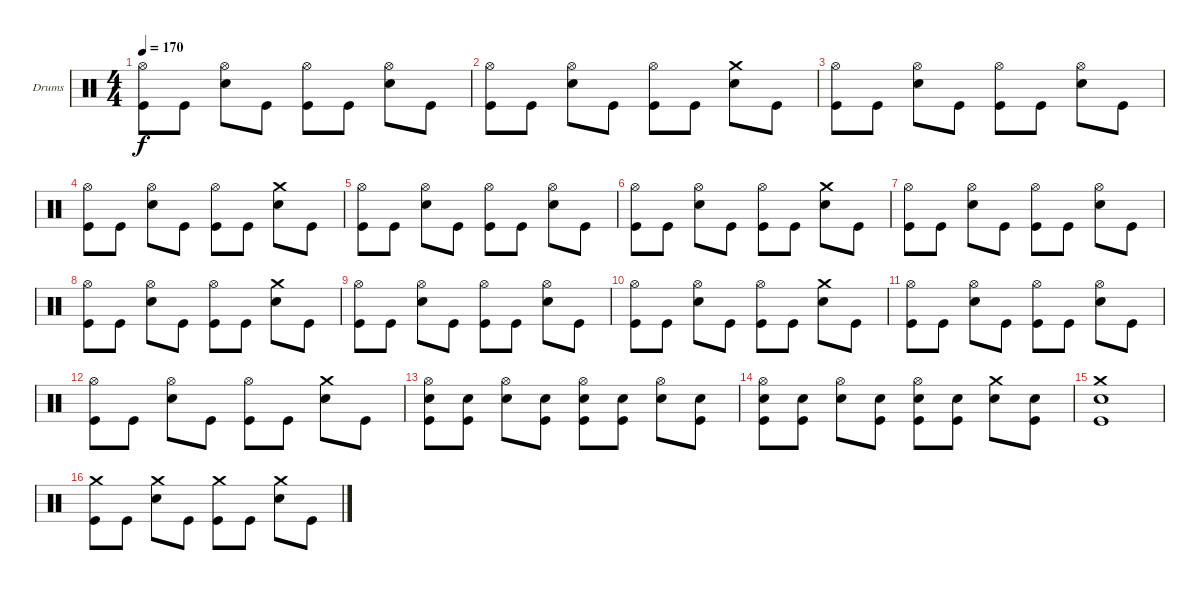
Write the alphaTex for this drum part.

\bracketExtendMode groupsimilarinstruments
\firstSystemTrackNameOrientation horizontal
\otherSystemsTrackNameOrientation horizontal
\track ("Drumkit" "Drums") {instrument percussion}
\staff {score}
\articulation defaults
\ts (4 4)
\tempo 170
\clef neutral
\ks c
("Hi-Hat (open)" "Kick (hit)").8{dy f} "Kick (hit)".8 ("Hi-Hat (open)" "Snare (hit) 2").8 "Kick (hit)".8 ("Hi-Hat (open)" "Kick (hit)").8 "Kick (hit)".8 ("Hi-Hat (open)" "Snare (hit) 2").8 "Kick (hit)".8 |
("Hi-Hat (open)" "Kick (hit)").8 "Kick (hit)".8 ("Hi-Hat (open)" "Snare (hit) 2").8 "Kick (hit)".8 ("Hi-Hat (open)" "Kick (hit)").8 "Kick (hit)".8 ("Crash medium (hit)" "Snare (hit) 2").8 "Kick (hit)".8 |
("Hi-Hat (open)" "Kick (hit)").8 "Kick (hit)".8 ("Hi-Hat (open)" "Snare (hit) 2").8 "Kick (hit)".8 ("Hi-Hat (open)" "Kick (hit)").8 "Kick (hit)".8 ("Hi-Hat (open)" "Snare (hit) 2").8 "Kick (hit)".8 |
("Hi-Hat (open)" "Kick (hit)").8 "Kick (hit)".8 ("Hi-Hat (open)" "Snare (hit) 2").8 "Kick (hit)".8 ("Hi-Hat (open)" "Kick (hit)").8 "Kick (hit)".8 ("Crash medium (hit)" "Snare (hit) 2").8 "Kick (hit)".8 |
("Hi-Hat (open)" "Kick (hit)").8 "Kick (hit)".8 ("Hi-Hat (open)" "Snare (hit) 2").8 "Kick (hit)".8 ("Hi-Hat (open)" "Kick (hit)").8 "Kick (hit)".8 ("Hi-Hat (open)" "Snare (hit) 2").8 "Kick (hit)".8 |
("Hi-Hat (open)" "Kick (hit)").8 "Kick (hit)".8 ("Hi-Hat (open)" "Snare (hit) 2").8 "Kick (hit)".8 ("Hi-Hat (open)" "Kick (hit)").8 "Kick (hit)".8 ("Crash medium (hit)" "Snare (hit) 2").8 "Kick (hit)".8 |
("Hi-Hat (open)" "Kick (hit)").8 "Kick (hit)".8 ("Hi-Hat (open)" "Snare (hit) 2").8 "Kick (hit)".8 ("Hi-Hat (open)" "Kick (hit)").8 "Kick (hit)".8 ("Hi-Hat (open)" "Snare (hit) 2").8 "Kick (hit)".8 |
("Hi-Hat (open)" "Kick (hit)").8 "Kick (hit)".8 ("Hi-Hat (open)" "Snare (hit) 2").8 "Kick (hit)".8 ("Hi-Hat (open)" "Kick (hit)").8 "Kick (hit)".8 ("Crash medium (hit)" "Snare (hit) 2").8 "Kick (hit)".8 |
("Hi-Hat (open)" "Kick (hit)").8 "Kick (hit)".8 ("Hi-Hat (open)" "Snare (hit) 2").8 "Kick (hit)".8 ("Hi-Hat (open)" "Kick (hit)").8 "Kick (hit)".8 ("Hi-Hat (open)" "Snare (hit) 2").8 "Kick (hit)".8 |
("Hi-Hat (open)" "Kick (hit)").8 "Kick (hit)".8 ("Hi-Hat (open)" "Snare (hit) 2").8 "Kick (hit)".8 ("Hi-Hat (open)" "Kick (hit)").8 "Kick (hit)".8 ("Crash medium (hit)" "Snare (hit) 2").8 "Kick (hit)".8 |
("Hi-Hat (open)" "Kick (hit)").8 "Kick (hit)".8 ("Hi-Hat (open)" "Snare (hit) 2").8 "Kick (hit)".8 ("Hi-Hat (open)" "Kick (hit)").8 "Kick (hit)".8 ("Hi-Hat (open)" "Snare (hit) 2").8 "Kick (hit)".8 |
("Hi-Hat (open)" "Kick (hit)").8 "Kick (hit)".8 ("Hi-Hat (open)" "Snare (hit) 2").8 "Kick (hit)".8 ("Hi-Hat (open)" "Kick (hit)").8 "Kick (hit)".8 ("Crash medium (hit)" "Snare (hit) 2").8 "Kick (hit)".8 |
("Hi-Hat (open)" "Snare (hit) 2" "Kick (hit)").8 ("Snare (hit) 2" "Kick (hit)").8 ("Hi-Hat (open)" "Snare (hit) 2").8 ("Snare (hit) 2" "Kick (hit)").8 ("Hi-Hat (open)" "Snare (hit) 2" "Kick (hit)").8 ("Snare (hit) 2" "Kick (hit)").8 ("Hi-Hat (open)" "Snare (hit) 2").8 ("Snare (hit) 2" "Kick (hit)").8 |
("Hi-Hat (open)" "Snare (hit) 2" "Kick (hit)").8 ("Snare (hit) 2" "Kick (hit)").8 ("Hi-Hat (open)" "Snare (hit) 2").8 ("Snare (hit) 2" "Kick (hit)").8 ("Hi-Hat (open)" "Snare (hit) 2" "Kick (hit)").8 ("Snare (hit) 2" "Kick (hit)").8 ("Crash medium (hit)" "Snare (hit) 2").8 ("Snare (hit) 2" "Kick (hit)").8 |
("Crash medium (hit)" "Snare (hit) 2" "Kick (hit)").1 |
("Crash medium (hit)" "Kick (hit)").8 "Kick (hit)".8 ("Crash medium (hit)" "Snare (hit) 2").8 "Kick (hit)".8 ("Crash medium (hit)" "Kick (hit)").8 "Kick (hit)".8 ("Crash medium (hit)" "Snare (hit) 2").8 "Kick (hit)".8
